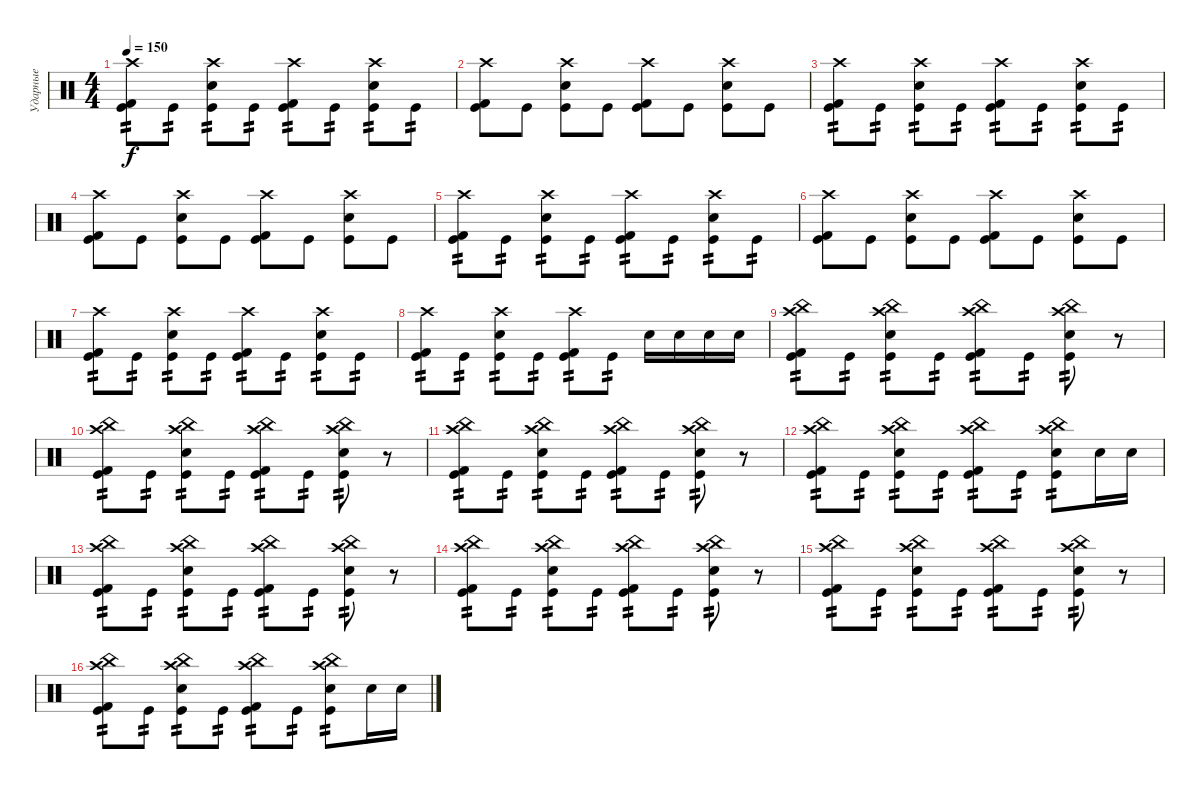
\track ("Ударные" "Ударные") {instrument percussion}
\staff {score}
\articulation defaults
\ts (4 4)
\tempo 150
\clef neutral
\ks c
("Crash high (hit)" "Kick (hit) 2" "Kick (hit)").8{tp 2 dy f} "Kick (hit)".8{tp 2} ("Crash high (hit)" "Electric Snare (hit)" "Kick (hit)").8{tp 2} "Kick (hit)".8{tp 2} ("Crash high (hit)" "Kick (hit) 2" "Kick (hit)").8{tp 2} "Kick (hit)".8{tp 2} ("Crash high (hit)" "Electric Snare (hit)" "Kick (hit)").8{tp 2} "Kick (hit)".8{tp 2} |
("Crash high (hit)" "Kick (hit) 2" "Kick (hit)").8 "Kick (hit)".8 ("Crash high (hit)" "Electric Snare (hit)" "Kick (hit)").8 "Kick (hit)".8 ("Crash high (hit)" "Kick (hit) 2" "Kick (hit)").8 "Kick (hit)".8 ("Crash high (hit)" "Electric Snare (hit)" "Kick (hit)").8 "Kick (hit)".8 |
("Crash high (hit)" "Kick (hit) 2" "Kick (hit)").8{tp 2} "Kick (hit)".8{tp 2} ("Crash high (hit)" "Electric Snare (hit)" "Kick (hit)").8{tp 2} "Kick (hit)".8{tp 2} ("Crash high (hit)" "Kick (hit) 2" "Kick (hit)").8{tp 2} "Kick (hit)".8{tp 2} ("Crash high (hit)" "Electric Snare (hit)" "Kick (hit)").8{tp 2} "Kick (hit)".8{tp 2} |
("Crash high (hit)" "Kick (hit) 2" "Kick (hit)").8 "Kick (hit)".8 ("Crash high (hit)" "Electric Snare (hit)" "Kick (hit)").8 "Kick (hit)".8 ("Crash high (hit)" "Kick (hit) 2" "Kick (hit)").8 "Kick (hit)".8 ("Crash high (hit)" "Electric Snare (hit)" "Kick (hit)").8 "Kick (hit)".8 |
("Crash high (hit)" "Kick (hit) 2" "Kick (hit)").8{tp 2} "Kick (hit)".8{tp 2} ("Crash high (hit)" "Electric Snare (hit)" "Kick (hit)").8{tp 2} "Kick (hit)".8{tp 2} ("Crash high (hit)" "Kick (hit) 2" "Kick (hit)").8{tp 2} "Kick (hit)".8{tp 2} ("Crash high (hit)" "Electric Snare (hit)" "Kick (hit)").8{tp 2} "Kick (hit)".8{tp 2} |
("Crash high (hit)" "Kick (hit) 2" "Kick (hit)").8 "Kick (hit)".8 ("Crash high (hit)" "Electric Snare (hit)" "Kick (hit)").8 "Kick (hit)".8 ("Crash high (hit)" "Kick (hit) 2" "Kick (hit)").8 "Kick (hit)".8 ("Crash high (hit)" "Electric Snare (hit)" "Kick (hit)").8 "Kick (hit)".8 |
("Crash high (hit)" "Kick (hit) 2" "Kick (hit)").8{tp 2} "Kick (hit)".8{tp 2} ("Crash high (hit)" "Electric Snare (hit)" "Kick (hit)").8{tp 2} "Kick (hit)".8{tp 2} ("Crash high (hit)" "Kick (hit) 2" "Kick (hit)").8{tp 2} "Kick (hit)".8{tp 2} ("Crash high (hit)" "Electric Snare (hit)" "Kick (hit)").8{tp 2} "Kick (hit)".8{tp 2} |
("Crash high (hit)" "Kick (hit) 2" "Kick (hit)").8{tp 2} "Kick (hit)".8{tp 2} ("Crash high (hit)" "Electric Snare (hit)" "Kick (hit)").8{tp 2} "Kick (hit)".8{tp 2} ("Crash high (hit)" "Kick (hit) 2" "Kick (hit)").8{tp 2} "Kick (hit)".8{tp 2} "Snare (hit) 2".16 "Snare (hit) 2".16 "Snare (hit) 2".16 "Snare (hit) 2".16 |
("Crash high (hit)" "Kick (hit) 2" "China (hit)" "Kick (hit)").8{tp 2} "Kick (hit)".8{tp 2} ("Crash high (hit)" "Electric Snare (hit)" "China (hit)" "Kick (hit)").8{tp 2} "Kick (hit)".8{tp 2} ("Crash high (hit)" "Kick (hit) 2" "China (hit)" "Kick (hit)").8{tp 2} "Kick (hit)".8{tp 2} ("Crash high (hit)" "Electric Snare (hit)" "China (hit)" "Kick (hit)").8{tp 2} r.8 |
("Crash high (hit)" "Kick (hit) 2" "China (hit)" "Kick (hit)").8{tp 2} "Kick (hit)".8{tp 2} ("Crash high (hit)" "Electric Snare (hit)" "China (hit)" "Kick (hit)").8{tp 2} "Kick (hit)".8{tp 2} ("Crash high (hit)" "Kick (hit) 2" "China (hit)" "Kick (hit)").8{tp 2} "Kick (hit)".8{tp 2} ("Crash high (hit)" "Electric Snare (hit)" "China (hit)" "Kick (hit)").8{tp 2} r.8 |
("Crash high (hit)" "Kick (hit) 2" "China (hit)" "Kick (hit)").8{tp 2} "Kick (hit)".8{tp 2} ("Crash high (hit)" "Electric Snare (hit)" "China (hit)" "Kick (hit)").8{tp 2} "Kick (hit)".8{tp 2} ("Crash high (hit)" "Kick (hit) 2" "China (hit)" "Kick (hit)").8{tp 2} "Kick (hit)".8{tp 2} ("Crash high (hit)" "Electric Snare (hit)" "China (hit)" "Kick (hit)").8{tp 2} r.8 |
("Crash high (hit)" "Kick (hit) 2" "China (hit)" "Kick (hit)").8{tp 2} "Kick (hit)".8{tp 2} ("Crash high (hit)" "Electric Snare (hit)" "China (hit)" "Kick (hit)").8{tp 2} "Kick (hit)".8{tp 2} ("Crash high (hit)" "Kick (hit) 2" "China (hit)" "Kick (hit)").8{tp 2} "Kick (hit)".8{tp 2} ("Crash high (hit)" "Electric Snare (hit)" "China (hit)" "Kick (hit)").8{tp 2} "Electric Snare (hit)".16 "Electric Snare (hit)".16 |
("Crash high (hit)" "Kick (hit) 2" "China (hit)" "Kick (hit)").8{tp 2} "Kick (hit)".8{tp 2} ("Crash high (hit)" "Electric Snare (hit)" "China (hit)" "Kick (hit)").8{tp 2} "Kick (hit)".8{tp 2} ("Crash high (hit)" "Kick (hit) 2" "China (hit)" "Kick (hit)").8{tp 2} "Kick (hit)".8{tp 2} ("Crash high (hit)" "Electric Snare (hit)" "China (hit)" "Kick (hit)").8{tp 2} r.8 |
("Crash high (hit)" "Kick (hit) 2" "China (hit)" "Kick (hit)").8{tp 2} "Kick (hit)".8{tp 2} ("Crash high (hit)" "Electric Snare (hit)" "China (hit)" "Kick (hit)").8{tp 2} "Kick (hit)".8{tp 2} ("Crash high (hit)" "Kick (hit) 2" "China (hit)" "Kick (hit)").8{tp 2} "Kick (hit)".8{tp 2} ("Crash high (hit)" "Electric Snare (hit)" "China (hit)" "Kick (hit)").8{tp 2} r.8 |
("Crash high (hit)" "Kick (hit) 2" "China (hit)" "Kick (hit)").8{tp 2} "Kick (hit)".8{tp 2} ("Crash high (hit)" "Electric Snare (hit)" "China (hit)" "Kick (hit)").8{tp 2} "Kick (hit)".8{tp 2} ("Crash high (hit)" "Kick (hit) 2" "China (hit)" "Kick (hit)").8{tp 2} "Kick (hit)".8{tp 2} ("Crash high (hit)" "Electric Snare (hit)" "China (hit)" "Kick (hit)").8{tp 2} r.8 |
("Crash high (hit)" "Kick (hit) 2" "China (hit)" "Kick (hit)").8{tp 2} "Kick (hit)".8{tp 2} ("Crash high (hit)" "Electric Snare (hit)" "China (hit)" "Kick (hit)").8{tp 2} "Kick (hit)".8{tp 2} ("Crash high (hit)" "Kick (hit) 2" "China (hit)" "Kick (hit)").8{tp 2} "Kick (hit)".8{tp 2} ("Crash high (hit)" "Electric Snare (hit)" "China (hit)" "Kick (hit)").8{tp 2} "Electric Snare (hit)".16 "Electric Snare (hit)".16
